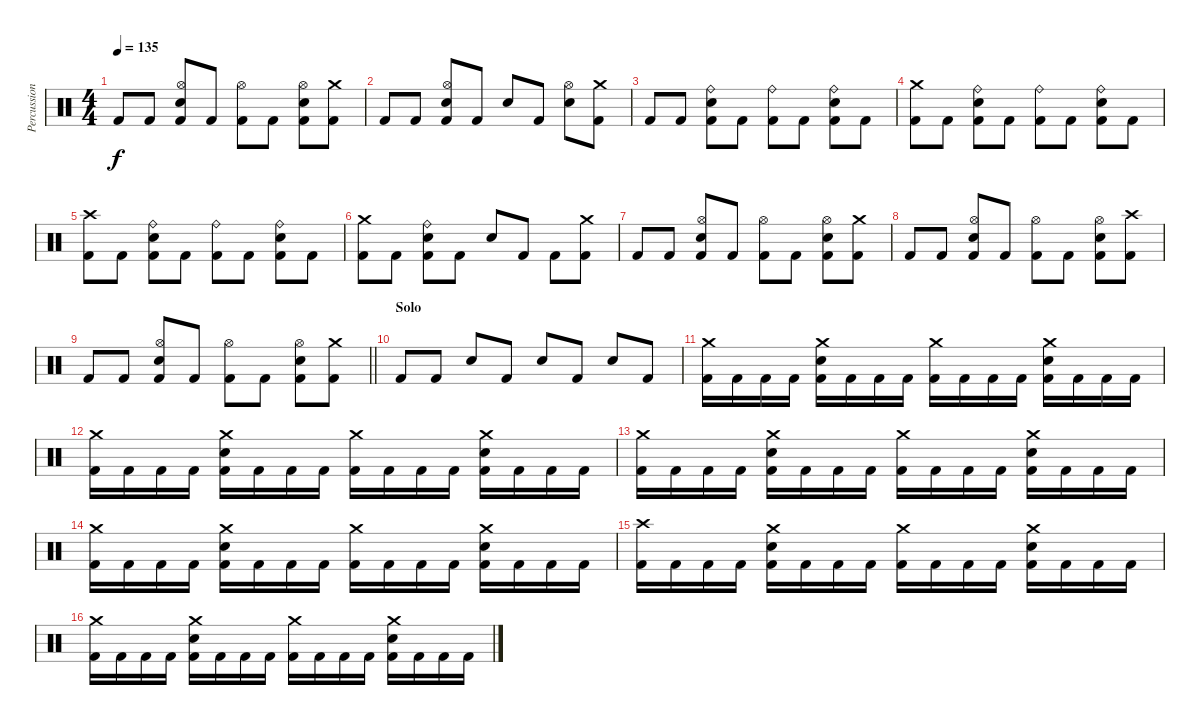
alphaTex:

\track ("Percussion" "Percussion") {instrument percussion}
\staff {score}
\articulation defaults
\ts (4 4)
\tempo 135
\clef neutral
\ks c "Kick (hit) 2".8{dy f} "Kick (hit) 2".8
("Hi-Hat (open)" "Electric Snare (hit)" "Kick (hit) 2").8 "Kick (hit) 2".8 ("Hi-Hat (open)" "Kick (hit) 2").8 "Kick (hit) 2".8 ("Hi-Hat (open)" "Electric Snare (hit)" "Kick (hit) 2").8 ("Crash medium (hit)" "Kick (hit) 2").8 |
"Kick (hit) 2".8 "Kick (hit) 2".8 ("Hi-Hat (open)" "Electric Snare (hit)" "Kick (hit) 2").8 "Kick (hit) 2".8 "Electric Snare (hit)".8 "Kick (hit) 2".8 ("Hi-Hat (open)" "Electric Snare (hit)").8 ("Crash medium (hit)" "Kick (hit) 2").8 |
"Kick (hit) 2".8 "Kick (hit) 2".8 ("Ride (bell)" "Electric Snare (hit)" "Kick (hit) 2").8 "Kick (hit) 2".8 ("Ride (bell)" "Kick (hit) 2").8 "Kick (hit) 2".8 ("Ride (bell)" "Electric Snare (hit)" "Kick (hit) 2").8 "Kick (hit) 2".8 |
("Crash medium (hit)" "Kick (hit) 2").8 "Kick (hit) 2".8 ("Ride (bell)" "Electric Snare (hit)" "Kick (hit) 2").8 "Kick (hit) 2".8 ("Ride (bell)" "Kick (hit) 2").8 "Kick (hit) 2".8 ("Ride (bell)" "Electric Snare (hit)" "Kick (hit) 2").8 "Kick (hit) 2".8 |
("Crash high (hit)" "Kick (hit) 2").8 "Kick (hit) 2".8 ("Ride (bell)" "Electric Snare (hit)" "Kick (hit) 2").8 "Kick (hit) 2".8 ("Ride (bell)" "Kick (hit) 2").8 "Kick (hit) 2".8 ("Ride (bell)" "Electric Snare (hit)" "Kick (hit) 2").8 "Kick (hit) 2".8 |
("Crash medium (hit)" "Kick (hit) 2").8 "Kick (hit) 2".8 ("Ride (bell)" "Electric Snare (hit)" "Kick (hit) 2").8 "Kick (hit) 2".8 "Electric Snare (hit)".8 "Kick (hit) 2".8 "Kick (hit) 2".8 ("Crash medium (hit)" "Kick (hit) 2").8 |
"Kick (hit) 2".8 "Kick (hit) 2".8 ("Hi-Hat (open)" "Electric Snare (hit)" "Kick (hit) 2").8 "Kick (hit) 2".8 ("Hi-Hat (open)" "Kick (hit) 2").8 "Kick (hit) 2".8 ("Hi-Hat (open)" "Electric Snare (hit)" "Kick (hit) 2").8 ("Crash medium (hit)" "Kick (hit) 2").8 |
"Kick (hit) 2".8 "Kick (hit) 2".8 ("Hi-Hat (open)" "Electric Snare (hit)" "Kick (hit) 2").8 "Kick (hit) 2".8 ("Hi-Hat (open)" "Kick (hit) 2").8 "Kick (hit) 2".8 ("Hi-Hat (open)" "Electric Snare (hit)" "Kick (hit) 2").8 ("Crash high (hit)" "Kick (hit) 2").8 |
\barLineRight lightlight "Kick (hit) 2".8 "Kick (hit) 2".8
("Hi-Hat (open)" "Electric Snare (hit)" "Kick (hit) 2").8 "Kick (hit) 2".8 ("Hi-Hat (open)" "Kick (hit) 2").8 "Kick (hit) 2".8 ("Hi-Hat (open)" "Electric Snare (hit)" "Kick (hit) 2").8 ("Crash medium (hit)" "Kick (hit) 2").8 |
\section ("" "Solo")
"Kick (hit) 2".8 "Kick (hit) 2".8 "Electric Snare (hit)".8 "Kick (hit) 2".8 "Electric Snare (hit)".8 "Kick (hit) 2".8 "Electric Snare (hit)".8 "Kick (hit) 2".8 |
("Crash medium (hit)" "Kick (hit) 2").16 "Kick (hit) 2".16 "Kick (hit) 2".16 "Kick (hit) 2".16 ("Crash medium (hit)" "Electric Snare (hit)" "Kick (hit) 2").16 "Kick (hit) 2".16 "Kick (hit) 2".16 "Kick (hit) 2".16 ("Crash medium (hit)" "Kick (hit) 2").16 "Kick (hit) 2".16 "Kick (hit) 2".16 "Kick (hit) 2".16 ("Crash medium (hit)" "Electric Snare (hit)" "Kick (hit) 2").16 "Kick (hit) 2".16 "Kick (hit) 2".16 "Kick (hit) 2".16 |
("Crash medium (hit)" "Kick (hit) 2").16 "Kick (hit) 2".16 "Kick (hit) 2".16 "Kick (hit) 2".16 ("Crash medium (hit)" "Electric Snare (hit)" "Kick (hit) 2").16 "Kick (hit) 2".16 "Kick (hit) 2".16 "Kick (hit) 2".16 ("Crash medium (hit)" "Kick (hit) 2").16 "Kick (hit) 2".16 "Kick (hit) 2".16 "Kick (hit) 2".16 ("Crash medium (hit)" "Electric Snare (hit)" "Kick (hit) 2").16 "Kick (hit) 2".16 "Kick (hit) 2".16 "Kick (hit) 2".16 |
("Crash medium (hit)" "Kick (hit) 2").16 "Kick (hit) 2".16 "Kick (hit) 2".16 "Kick (hit) 2".16 ("Crash medium (hit)" "Electric Snare (hit)" "Kick (hit) 2").16 "Kick (hit) 2".16 "Kick (hit) 2".16 "Kick (hit) 2".16 ("Crash medium (hit)" "Kick (hit) 2").16 "Kick (hit) 2".16 "Kick (hit) 2".16 "Kick (hit) 2".16 ("Crash medium (hit)" "Electric Snare (hit)" "Kick (hit) 2").16 "Kick (hit) 2".16 "Kick (hit) 2".16 "Kick (hit) 2".16 |
("Crash medium (hit)" "Kick (hit) 2").16 "Kick (hit) 2".16 "Kick (hit) 2".16 "Kick (hit) 2".16 ("Crash medium (hit)" "Electric Snare (hit)" "Kick (hit) 2").16 "Kick (hit) 2".16 "Kick (hit) 2".16 "Kick (hit) 2".16 ("Crash medium (hit)" "Kick (hit) 2").16 "Kick (hit) 2".16 "Kick (hit) 2".16 "Kick (hit) 2".16 ("Crash medium (hit)" "Electric Snare (hit)" "Kick (hit) 2").16 "Kick (hit) 2".16 "Kick (hit) 2".16 "Kick (hit) 2".16 |
("Crash high (hit)" "Kick (hit) 2").16 "Kick (hit) 2".16 "Kick (hit) 2".16 "Kick (hit) 2".16 ("Crash medium (hit)" "Electric Snare (hit)" "Kick (hit) 2").16 "Kick (hit) 2".16 "Kick (hit) 2".16 "Kick (hit) 2".16 ("Crash medium (hit)" "Kick (hit) 2").16 "Kick (hit) 2".16 "Kick (hit) 2".16 "Kick (hit) 2".16 ("Crash medium (hit)" "Electric Snare (hit)" "Kick (hit) 2").16 "Kick (hit) 2".16 "Kick (hit) 2".16 "Kick (hit) 2".16 |
("Crash medium (hit)" "Kick (hit) 2").16 "Kick (hit) 2".16 "Kick (hit) 2".16 "Kick (hit) 2".16 ("Crash medium (hit)" "Electric Snare (hit)" "Kick (hit) 2").16 "Kick (hit) 2".16 "Kick (hit) 2".16 "Kick (hit) 2".16 ("Crash medium (hit)" "Kick (hit) 2").16 "Kick (hit) 2".16 "Kick (hit) 2".16 "Kick (hit) 2".16 ("Crash medium (hit)" "Electric Snare (hit)" "Kick (hit) 2").16 "Kick (hit) 2".16 "Kick (hit) 2".16 "Kick (hit) 2".16
